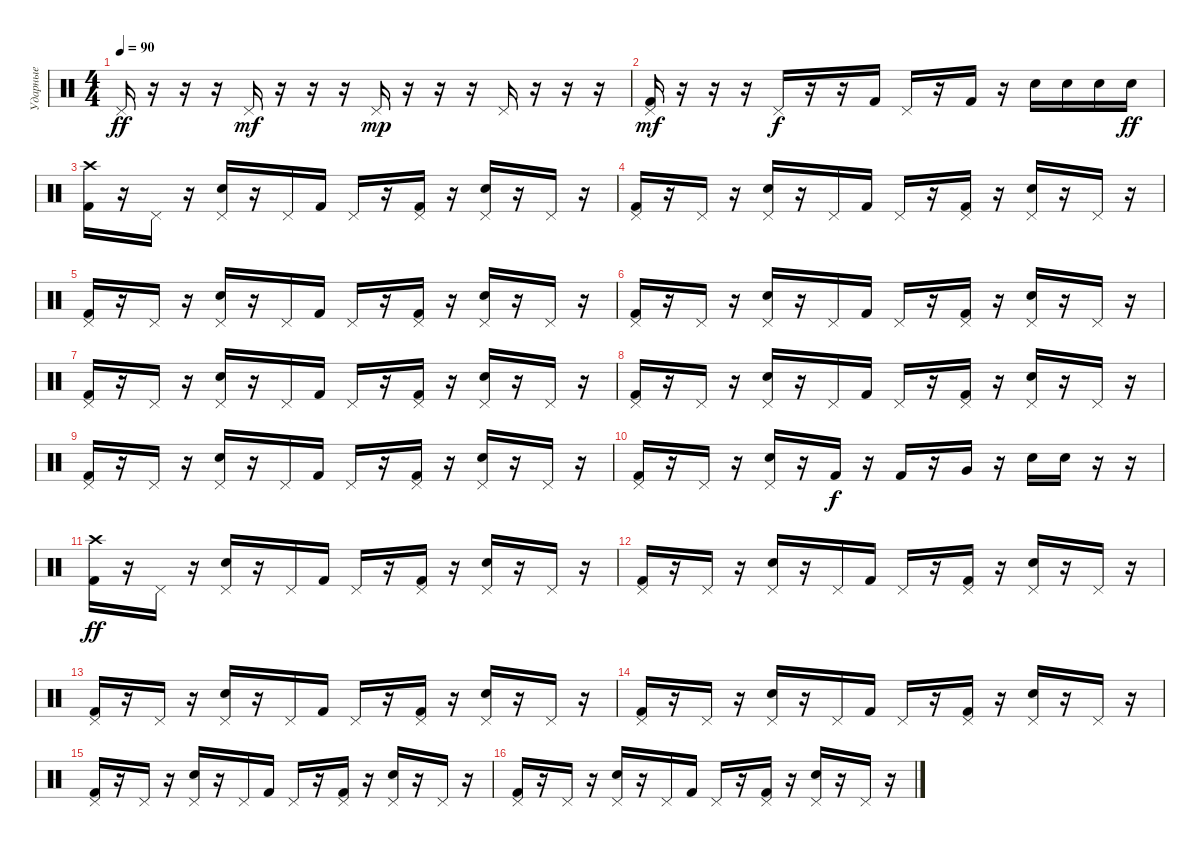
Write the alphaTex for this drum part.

\track ("Ударные" "Ударные") {instrument percussion}
\staff {score}
\articulation defaults
\ts (4 4)
\tempo 90
\clef neutral
\ks aminor "Pedal Hi-Hat (hit)".16{dy ff}
r.16 r.16 r.16 "Pedal Hi-Hat (hit)".16{dy mf} r.16 r.16 r.16 "Pedal Hi-Hat (hit)".16{dy mp} r.16 r.16 r.16 "Pedal Hi-Hat (hit)".16 r.16 r.16 r.16 |
("Pedal Hi-Hat (hit)" "Kick (hit) 2").16{dy mf} r.16 r.16 r.16 "Pedal Hi-Hat (hit)".16{dy f} r.16 r.16 "Kick (hit) 2".16 "Pedal Hi-Hat (hit)".16 r.16 "Kick (hit) 2".16 r.16 "Electric Snare (hit)".16 "Electric Snare (hit)".16 "Electric Snare (hit)".16 "Electric Snare (hit)".16{dy ff} |
("Crash high (hit)" "Kick (hit) 2").16 r.16 "Pedal Hi-Hat (hit)".16 r.16 ("Pedal Hi-Hat (hit)" "Electric Snare (hit)").16 r.16 "Pedal Hi-Hat (hit)".16 "Kick (hit) 2".16 "Pedal Hi-Hat (hit)".16 r.16 ("Pedal Hi-Hat (hit)" "Kick (hit) 2").16 r.16 ("Pedal Hi-Hat (hit)" "Electric Snare (hit)").16 r.16 "Pedal Hi-Hat (hit)".16 r.16 |
("Pedal Hi-Hat (hit)" "Kick (hit) 2").16 r.16 "Pedal Hi-Hat (hit)".16 r.16 ("Pedal Hi-Hat (hit)" "Electric Snare (hit)").16 r.16 "Pedal Hi-Hat (hit)".16 "Kick (hit) 2".16 "Pedal Hi-Hat (hit)".16 r.16 ("Pedal Hi-Hat (hit)" "Kick (hit) 2").16 r.16 ("Pedal Hi-Hat (hit)" "Electric Snare (hit)").16 r.16 "Pedal Hi-Hat (hit)".16 r.16 |
("Pedal Hi-Hat (hit)" "Kick (hit) 2").16 r.16 "Pedal Hi-Hat (hit)".16 r.16 ("Pedal Hi-Hat (hit)" "Electric Snare (hit)").16 r.16 "Pedal Hi-Hat (hit)".16 "Kick (hit) 2".16 "Pedal Hi-Hat (hit)".16 r.16 ("Pedal Hi-Hat (hit)" "Kick (hit) 2").16 r.16 ("Pedal Hi-Hat (hit)" "Electric Snare (hit)").16 r.16 "Pedal Hi-Hat (hit)".16 r.16 |
("Pedal Hi-Hat (hit)" "Kick (hit) 2").16 r.16 "Pedal Hi-Hat (hit)".16 r.16 ("Pedal Hi-Hat (hit)" "Electric Snare (hit)").16 r.16 "Pedal Hi-Hat (hit)".16 "Kick (hit) 2".16 "Pedal Hi-Hat (hit)".16 r.16 ("Pedal Hi-Hat (hit)" "Kick (hit) 2").16 r.16 ("Pedal Hi-Hat (hit)" "Electric Snare (hit)").16 r.16 "Pedal Hi-Hat (hit)".16 r.16 |
("Pedal Hi-Hat (hit)" "Kick (hit) 2").16 r.16 "Pedal Hi-Hat (hit)".16 r.16 ("Pedal Hi-Hat (hit)" "Electric Snare (hit)").16 r.16 "Pedal Hi-Hat (hit)".16 "Kick (hit) 2".16 "Pedal Hi-Hat (hit)".16 r.16 ("Pedal Hi-Hat (hit)" "Kick (hit) 2").16 r.16 ("Pedal Hi-Hat (hit)" "Electric Snare (hit)").16 r.16 "Pedal Hi-Hat (hit)".16 r.16 |
("Pedal Hi-Hat (hit)" "Kick (hit) 2").16 r.16 "Pedal Hi-Hat (hit)".16 r.16 ("Pedal Hi-Hat (hit)" "Electric Snare (hit)").16 r.16 "Pedal Hi-Hat (hit)".16 "Kick (hit) 2".16 "Pedal Hi-Hat (hit)".16 r.16 ("Pedal Hi-Hat (hit)" "Kick (hit) 2").16 r.16 ("Pedal Hi-Hat (hit)" "Electric Snare (hit)").16 r.16 "Pedal Hi-Hat (hit)".16 r.16 |
("Pedal Hi-Hat (hit)" "Kick (hit) 2").16 r.16 "Pedal Hi-Hat (hit)".16 r.16 ("Pedal Hi-Hat (hit)" "Electric Snare (hit)").16 r.16 "Pedal Hi-Hat (hit)".16 "Kick (hit) 2".16 "Pedal Hi-Hat (hit)".16 r.16 ("Pedal Hi-Hat (hit)" "Kick (hit) 2").16 r.16 ("Pedal Hi-Hat (hit)" "Electric Snare (hit)").16 r.16 "Pedal Hi-Hat (hit)".16 r.16 |
("Pedal Hi-Hat (hit)" "Kick (hit) 2").16 r.16 "Pedal Hi-Hat (hit)".16 r.16 ("Pedal Hi-Hat (hit)" "Electric Snare (hit)").16 r.16 "Kick (hit) 2".16{dy f} r.16 "Kick (hit) 2".16 r.16 "Very Low Tom (hit)".16 r.16 "Electric Snare (hit)".16 "Electric Snare (hit)".16 r.16 r.16 |
("Crash high (hit)" "Kick (hit) 2").16{dy ff} r.16 "Pedal Hi-Hat (hit)".16 r.16 ("Pedal Hi-Hat (hit)" "Electric Snare (hit)").16 r.16 "Pedal Hi-Hat (hit)".16 "Kick (hit) 2".16 "Pedal Hi-Hat (hit)".16 r.16 ("Pedal Hi-Hat (hit)" "Kick (hit) 2").16 r.16 ("Pedal Hi-Hat (hit)" "Electric Snare (hit)").16 r.16 "Pedal Hi-Hat (hit)".16 r.16 |
("Pedal Hi-Hat (hit)" "Kick (hit) 2").16 r.16 "Pedal Hi-Hat (hit)".16 r.16 ("Pedal Hi-Hat (hit)" "Electric Snare (hit)").16 r.16 "Pedal Hi-Hat (hit)".16 "Kick (hit) 2".16 "Pedal Hi-Hat (hit)".16 r.16 ("Pedal Hi-Hat (hit)" "Kick (hit) 2").16 r.16 ("Pedal Hi-Hat (hit)" "Electric Snare (hit)").16 r.16 "Pedal Hi-Hat (hit)".16 r.16 |
("Pedal Hi-Hat (hit)" "Kick (hit) 2").16 r.16 "Pedal Hi-Hat (hit)".16 r.16 ("Pedal Hi-Hat (hit)" "Electric Snare (hit)").16 r.16 "Pedal Hi-Hat (hit)".16 "Kick (hit) 2".16 "Pedal Hi-Hat (hit)".16 r.16 ("Pedal Hi-Hat (hit)" "Kick (hit) 2").16 r.16 ("Pedal Hi-Hat (hit)" "Electric Snare (hit)").16 r.16 "Pedal Hi-Hat (hit)".16 r.16 |
("Pedal Hi-Hat (hit)" "Kick (hit) 2").16 r.16 "Pedal Hi-Hat (hit)".16 r.16 ("Pedal Hi-Hat (hit)" "Electric Snare (hit)").16 r.16 "Pedal Hi-Hat (hit)".16 "Kick (hit) 2".16 "Pedal Hi-Hat (hit)".16 r.16 ("Pedal Hi-Hat (hit)" "Kick (hit) 2").16 r.16 ("Pedal Hi-Hat (hit)" "Electric Snare (hit)").16 r.16 "Pedal Hi-Hat (hit)".16 r.16 |
("Pedal Hi-Hat (hit)" "Kick (hit) 2").16 r.16 "Pedal Hi-Hat (hit)".16 r.16 ("Pedal Hi-Hat (hit)" "Electric Snare (hit)").16 r.16 "Pedal Hi-Hat (hit)".16 "Kick (hit) 2".16 "Pedal Hi-Hat (hit)".16 r.16 ("Pedal Hi-Hat (hit)" "Kick (hit) 2").16 r.16 ("Pedal Hi-Hat (hit)" "Electric Snare (hit)").16 r.16 "Pedal Hi-Hat (hit)".16 r.16 |
("Pedal Hi-Hat (hit)" "Kick (hit) 2").16 r.16 "Pedal Hi-Hat (hit)".16 r.16 ("Pedal Hi-Hat (hit)" "Electric Snare (hit)").16 r.16 "Pedal Hi-Hat (hit)".16 "Kick (hit) 2".16 "Pedal Hi-Hat (hit)".16 r.16 ("Pedal Hi-Hat (hit)" "Kick (hit) 2").16 r.16 ("Pedal Hi-Hat (hit)" "Electric Snare (hit)").16 r.16 "Pedal Hi-Hat (hit)".16 r.16
